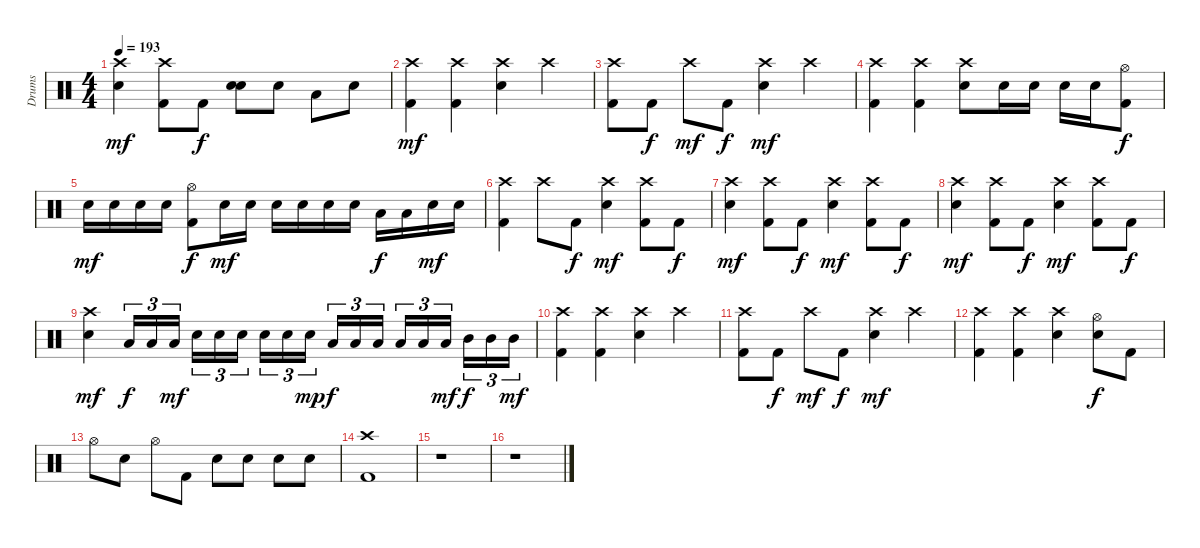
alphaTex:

\track ("Drums" "Drums") {instrument percussion}
\staff {score}
\articulation defaults
\ts (4 4)
\tempo 193
\clef neutral
\ks c
("Crash high (hit)" "Electric Snare (hit)").4{dy mf} ("Crash high (hit)" "Kick (hit) 2").8 "Kick (hit) 2".8{dy f} ("Electric Snare (hit)" "Electric Snare (hit)").8{bd 120} "Electric Snare (hit)".8 "Low Tom (hit)".8 "Electric Snare (hit)".8 |
("Crash high (hit)" "Kick (hit) 2").4{dy mf} ("Crash high (hit)" "Kick (hit) 2").4 ("Crash high (hit)" "Electric Snare (hit)").4 "Crash high (hit)".4 |
("Crash high (hit)" "Kick (hit) 2").8 "Kick (hit) 2".8{dy f} "Crash high (hit)".8{dy mf} "Kick (hit) 2".8{dy f} ("Crash high (hit)" "Electric Snare (hit)").4{dy mf} "Crash high (hit)".4 |
("Crash high (hit)" "Kick (hit) 2").4 ("Crash high (hit)" "Kick (hit) 2").4 ("Crash high (hit)" "Electric Snare (hit)").8 "Electric Snare (hit)".16 "Electric Snare (hit)".16 "Electric Snare (hit)".16 "Electric Snare (hit)".16 ("Hi-Hat (open)" "Kick (hit) 2").8{dy f} |
"Electric Snare (hit)".16{dy mf} "Electric Snare (hit)".16 "Electric Snare (hit)".16 "Electric Snare (hit)".16 ("Hi-Hat (open)" "Kick (hit) 2").8{dy f} "Electric Snare (hit)".16{dy mf} "Electric Snare (hit)".16 "Electric Snare (hit)".16 "Electric Snare (hit)".16 "Electric Snare (hit)".16 "Electric Snare (hit)".16 "Low Tom (hit)".16{dy f} "Low Tom (hit)".16 "Electric Snare (hit)".16{dy mf} "Electric Snare (hit)".16 |
("Crash high (hit)" "Kick (hit) 2").4 "Crash high (hit)".8 "Kick (hit) 2".8{dy f} ("Crash high (hit)" "Electric Snare (hit)").4{dy mf} ("Crash high (hit)" "Kick (hit) 2").8 "Kick (hit) 2".8{dy f} |
("Crash high (hit)" "Electric Snare (hit)").4{dy mf} ("Crash high (hit)" "Kick (hit) 2").8 "Kick (hit) 2".8{dy f} ("Crash high (hit)" "Electric Snare (hit)").4{dy mf} ("Crash high (hit)" "Kick (hit) 2").8 "Kick (hit) 2".8{dy f} |
("Crash high (hit)" "Electric Snare (hit)").4{dy mf} ("Crash high (hit)" "Kick (hit) 2").8 "Kick (hit) 2".8{dy f} ("Crash high (hit)" "Electric Snare (hit)").4{dy mf} ("Crash high (hit)" "Kick (hit) 2").8 "Kick (hit) 2".8{dy f} |
("Crash high (hit)" "Electric Snare (hit)").4{dy mf} "Low Tom (hit)".16{tu (3 2) dy f} "Low Tom (hit)".16{tu (3 2)} "Low Tom (hit)".16{tu (3 2) dy mf} "Electric Snare (hit)".16{tu (3 2)} "Electric Snare (hit)".16{tu (3 2)} "Electric Snare (hit)".16{tu (3 2)} "Electric Snare (hit)".16{tu (3 2)} "Electric Snare (hit)".16{tu (3 2)} "Electric Snare (hit)".16{tu (3 2) dy mp} "Low Tom (hit)".16{tu (3 2) dy f} "Low Tom (hit)".16{tu (3 2)} "Low Tom (hit)".16{tu (3 2)} "Low Tom (hit)".16{tu (3 2)} "Low Tom (hit)".16{tu (3 2)} "Low Tom (hit)".16{tu (3 2) dy mf} "Mid Tom (hit)".16{tu (3 2) dy f} "Mid Tom (hit)".16{tu (3 2)} "Mid Tom (hit)".16{tu (3 2) dy mf} |
("Crash high (hit)" "Kick (hit) 2").4 ("Crash high (hit)" "Kick (hit) 2").4 ("Crash high (hit)" "Electric Snare (hit)").4 "Crash high (hit)".4 |
("Crash high (hit)" "Kick (hit) 2").8 "Kick (hit) 2".8{dy f} "Crash high (hit)".8{dy mf} "Kick (hit) 2".8{dy f} ("Crash high (hit)" "Electric Snare (hit)").4{dy mf} "Crash high (hit)".4 |
("Crash high (hit)" "Kick (hit) 2").4 ("Crash high (hit)" "Kick (hit) 2").4 ("Crash high (hit)" "Electric Snare (hit)").4 ("Hi-Hat (open)" "Electric Snare (hit)").8{dy f} "Kick (hit) 2".8 |
"Hi-Hat (open)".8 "Electric Snare (hit)".8 "Hi-Hat (open)".8 "Kick (hit) 2".8 "Electric Snare (hit)".8 "Electric Snare (hit)".8 "Electric Snare (hit)".8 "Electric Snare (hit)".8 |
("Crash high (hit)" "Kick (hit) 2").1 |
r.1 |
r.1
